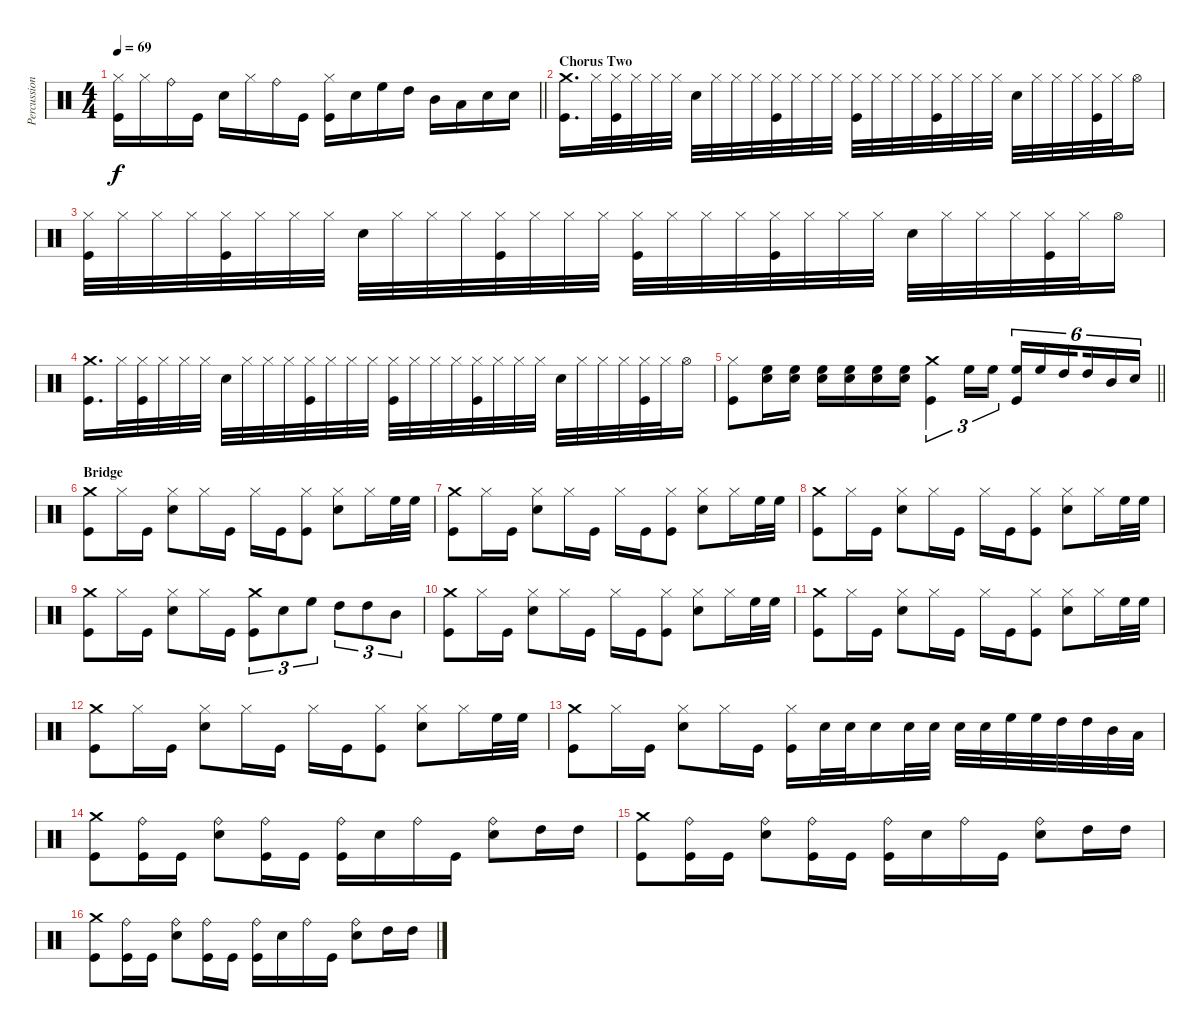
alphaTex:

\track ("Percussion" "Percussion") {instrument percussion}
\staff {score}
\articulation defaults
\ts (4 4)
\tempo 69
\clef neutral
\barLineRight lightlight
\ks c
("Hi-Hat (closed)" "Kick (hit)").16{dy f} "Hi-Hat (closed)".16 "Ride (bell)".16 "Kick (hit)".16 "Electric Snare (hit)".16 "Hi-Hat (closed)".16 "Ride (bell)".16 "Kick (hit)".16 ("Hi-Hat (closed)" "Kick (hit)").16 "Electric Snare (hit)".16 "High Floor Tom (hit)".16 "High Tom (hit)".16 "Mid Tom (hit)".16 "Low Tom (hit)".16 "Electric Snare (hit)".16 "Electric Snare (hit)".16 |
\section ("" "Chorus Two")
("Crash medium (hit)" "Kick (hit)").16{d} "Hi-Hat (closed)".32 ("Hi-Hat (closed)" "Kick (hit)").32 "Hi-Hat (closed)".32 "Hi-Hat (closed)".32 "Hi-Hat (closed)".32 "Electric Snare (hit)".32 "Hi-Hat (closed)".32 "Hi-Hat (closed)".32 "Hi-Hat (closed)".32 ("Hi-Hat (closed)" "Kick (hit)").32 "Hi-Hat (closed)".32 "Hi-Hat (closed)".32 "Hi-Hat (closed)".32 ("Hi-Hat (closed)" "Kick (hit)").32 "Hi-Hat (closed)".32 "Hi-Hat (closed)".32 "Hi-Hat (closed)".32 ("Hi-Hat (closed)" "Kick (hit)").32 "Hi-Hat (closed)".32 "Hi-Hat (closed)".32 "Hi-Hat (closed)".32 "Electric Snare (hit)".32 "Hi-Hat (closed)".32 "Hi-Hat (closed)".32 "Hi-Hat (closed)".32 ("Hi-Hat (closed)" "Kick (hit)").32 "Hi-Hat (closed)".32 "Hi-Hat (open)".16 |
("Hi-Hat (closed)" "Kick (hit)").32 "Hi-Hat (closed)".32 "Hi-Hat (closed)".32 "Hi-Hat (closed)".32 ("Hi-Hat (closed)" "Kick (hit)").32 "Hi-Hat (closed)".32 "Hi-Hat (closed)".32 "Hi-Hat (closed)".32 "Electric Snare (hit)".32 "Hi-Hat (closed)".32 "Hi-Hat (closed)".32 "Hi-Hat (closed)".32 ("Hi-Hat (closed)" "Kick (hit)").32 "Hi-Hat (closed)".32 "Hi-Hat (closed)".32 "Hi-Hat (closed)".32 ("Hi-Hat (closed)" "Kick (hit)").32 "Hi-Hat (closed)".32 "Hi-Hat (closed)".32 "Hi-Hat (closed)".32 ("Hi-Hat (closed)" "Kick (hit)").32 "Hi-Hat (closed)".32 "Hi-Hat (closed)".32 "Hi-Hat (closed)".32 "Electric Snare (hit)".32 "Hi-Hat (closed)".32 "Hi-Hat (closed)".32 "Hi-Hat (closed)".32 ("Hi-Hat (closed)" "Kick (hit)").32 "Hi-Hat (closed)".32 "Hi-Hat (open)".16 |
("Crash medium (hit)" "Kick (hit)").16{d} "Hi-Hat (closed)".32 ("Hi-Hat (closed)" "Kick (hit)").32 "Hi-Hat (closed)".32 "Hi-Hat (closed)".32 "Hi-Hat (closed)".32 "Electric Snare (hit)".32 "Hi-Hat (closed)".32 "Hi-Hat (closed)".32 "Hi-Hat (closed)".32 ("Hi-Hat (closed)" "Kick (hit)").32 "Hi-Hat (closed)".32 "Hi-Hat (closed)".32 "Hi-Hat (closed)".32 ("Hi-Hat (closed)" "Kick (hit)").32 "Hi-Hat (closed)".32 "Hi-Hat (closed)".32 "Hi-Hat (closed)".32 ("Hi-Hat (closed)" "Kick (hit)").32 "Hi-Hat (closed)".32 "Hi-Hat (closed)".32 "Hi-Hat (closed)".32 "Electric Snare (hit)".32 "Hi-Hat (closed)".32 "Hi-Hat (closed)".32 "Hi-Hat (closed)".32 ("Hi-Hat (closed)" "Kick (hit)").32 "Hi-Hat (closed)".32 "Hi-Hat (open)".16 |
\barLineRight lightlight
("Hi-Hat (closed)" "Kick (hit)").8 ("Electric Snare (hit)" "High Floor Tom (hit)").16 ("Electric Snare (hit)" "High Floor Tom (hit)").16 ("Electric Snare (hit)" "High Floor Tom (hit)").16 ("Electric Snare (hit)" "High Floor Tom (hit)").16 ("Electric Snare (hit)" "High Floor Tom (hit)").16 ("Electric Snare (hit)" "High Floor Tom (hit)").16 ("Crash medium (hit)" "Kick (hit)").4{tu (3 2)} "High Floor Tom (hit)".16{tu (3 2)} "High Floor Tom (hit)".16{tu (3 2)} ("High Floor Tom (hit)" "Kick (hit)").16{tu (6 4)} "High Floor Tom (hit)".16{tu (6 4)} "High Tom (hit)".16{tu (6 4) beam splitsecondary} "High Tom (hit)".16{tu (6 4)} "Mid Tom (hit)".16{tu (6 4)} "Electric Snare (hit)".16{tu (6 4)} |
\section ("" "Bridge")
("Crash medium (hit)" "Kick (hit)").8 "Hi-Hat (closed)".16 "Kick (hit)".16 ("Hi-Hat (closed)" "Electric Snare (hit)").8 "Hi-Hat (closed)".16 "Kick (hit)".16 "Hi-Hat (closed)".16 "Kick (hit)".16 ("Hi-Hat (closed)" "Kick (hit)").8 ("Hi-Hat (closed)" "Electric Snare (hit)").8 "Hi-Hat (closed)".16 "High Floor Tom (hit)".32 "High Floor Tom (hit)".32 |
("Crash medium (hit)" "Kick (hit)").8 "Hi-Hat (closed)".16 "Kick (hit)".16 ("Hi-Hat (closed)" "Electric Snare (hit)").8 "Hi-Hat (closed)".16 "Kick (hit)".16 "Hi-Hat (closed)".16 "Kick (hit)".16 ("Hi-Hat (closed)" "Kick (hit)").8 ("Hi-Hat (closed)" "Electric Snare (hit)").8 "Hi-Hat (closed)".16 "High Floor Tom (hit)".32 "High Floor Tom (hit)".32 |
("Crash medium (hit)" "Kick (hit)").8 "Hi-Hat (closed)".16 "Kick (hit)".16 ("Hi-Hat (closed)" "Electric Snare (hit)").8 "Hi-Hat (closed)".16 "Kick (hit)".16 "Hi-Hat (closed)".16 "Kick (hit)".16 ("Hi-Hat (closed)" "Kick (hit)").8 ("Hi-Hat (closed)" "Electric Snare (hit)").8 "Hi-Hat (closed)".16 "High Floor Tom (hit)".32 "High Floor Tom (hit)".32 |
("Crash medium (hit)" "Kick (hit)").8 "Hi-Hat (closed)".16 "Kick (hit)".16 ("Hi-Hat (closed)" "Electric Snare (hit)").8 "Hi-Hat (closed)".16 "Kick (hit)".16 ("Crash medium (hit)" "Kick (hit)").8{tu (3 2)} "Electric Snare (hit)".8{tu (3 2)} "High Floor Tom (hit)".8{tu (3 2)} "High Tom (hit)".8{tu (3 2)} "High Tom (hit)".8{tu (3 2)} "Mid Tom (hit)".8{tu (3 2)} |
("Crash medium (hit)" "Kick (hit)").8 "Hi-Hat (closed)".16 "Kick (hit)".16 ("Hi-Hat (closed)" "Electric Snare (hit)").8 "Hi-Hat (closed)".16 "Kick (hit)".16 "Hi-Hat (closed)".16 "Kick (hit)".16 ("Hi-Hat (closed)" "Kick (hit)").8 ("Hi-Hat (closed)" "Electric Snare (hit)").8 "Hi-Hat (closed)".16 "High Floor Tom (hit)".32 "High Floor Tom (hit)".32 |
("Crash medium (hit)" "Kick (hit)").8 "Hi-Hat (closed)".16 "Kick (hit)".16 ("Hi-Hat (closed)" "Electric Snare (hit)").8 "Hi-Hat (closed)".16 "Kick (hit)".16 "Hi-Hat (closed)".16 "Kick (hit)".16 ("Hi-Hat (closed)" "Kick (hit)").8 ("Hi-Hat (closed)" "Electric Snare (hit)").8 "Hi-Hat (closed)".16 "High Floor Tom (hit)".32 "High Floor Tom (hit)".32 |
("Crash medium (hit)" "Kick (hit)").8 "Hi-Hat (closed)".16 "Kick (hit)".16 ("Hi-Hat (closed)" "Electric Snare (hit)").8 "Hi-Hat (closed)".16 "Kick (hit)".16 "Hi-Hat (closed)".16 "Kick (hit)".16 ("Hi-Hat (closed)" "Kick (hit)").8 ("Hi-Hat (closed)" "Electric Snare (hit)").8 "Hi-Hat (closed)".16 "High Floor Tom (hit)".32 "High Floor Tom (hit)".32 |
("Crash medium (hit)" "Kick (hit)").8 "Hi-Hat (closed)".16 "Kick (hit)".16 ("Hi-Hat (closed)" "Electric Snare (hit)").8 "Hi-Hat (closed)".16 "Kick (hit)".16 ("Hi-Hat (closed)" "Kick (hit)").16 "Electric Snare (hit)".32 "Electric Snare (hit)".32 "Electric Snare (hit)".16 "Electric Snare (hit)".32 "Electric Snare (hit)".32 "Electric Snare (hit)".32 "Electric Snare (hit)".32 "High Floor Tom (hit)".32 "High Floor Tom (hit)".32 "High Tom (hit)".32 "High Tom (hit)".32 "Mid Tom (hit)".32 "Low Tom (hit)".32 |
("Crash medium (hit)" "Kick (hit)").8 ("Ride (bell)" "Kick (hit)").16 "Kick (hit)".16 ("Ride (bell)" "Electric Snare (hit)").8 ("Ride (bell)" "Kick (hit)").16 "Kick (hit)".16 ("Ride (bell)" "Kick (hit)").16 "Electric Snare (hit)".16 "Ride (bell)".16 "Kick (hit)".16 ("Ride (bell)" "Electric Snare (hit)").8 "High Tom (hit)".16 "High Tom (hit)".16 |
("Crash medium (hit)" "Kick (hit)").8 ("Ride (bell)" "Kick (hit)").16 "Kick (hit)".16 ("Ride (bell)" "Electric Snare (hit)").8 ("Ride (bell)" "Kick (hit)").16 "Kick (hit)".16 ("Ride (bell)" "Kick (hit)").16 "Electric Snare (hit)".16 "Ride (bell)".16 "Kick (hit)".16 ("Ride (bell)" "Electric Snare (hit)").8 "High Tom (hit)".16 "High Tom (hit)".16 |
("Crash medium (hit)" "Kick (hit)").8 ("Ride (bell)" "Kick (hit)").16 "Kick (hit)".16 ("Ride (bell)" "Electric Snare (hit)").8 ("Ride (bell)" "Kick (hit)").16 "Kick (hit)".16 ("Ride (bell)" "Kick (hit)").16 "Electric Snare (hit)".16 "Ride (bell)".16 "Kick (hit)".16 ("Ride (bell)" "Electric Snare (hit)").8 "High Tom (hit)".16 "High Tom (hit)".16
